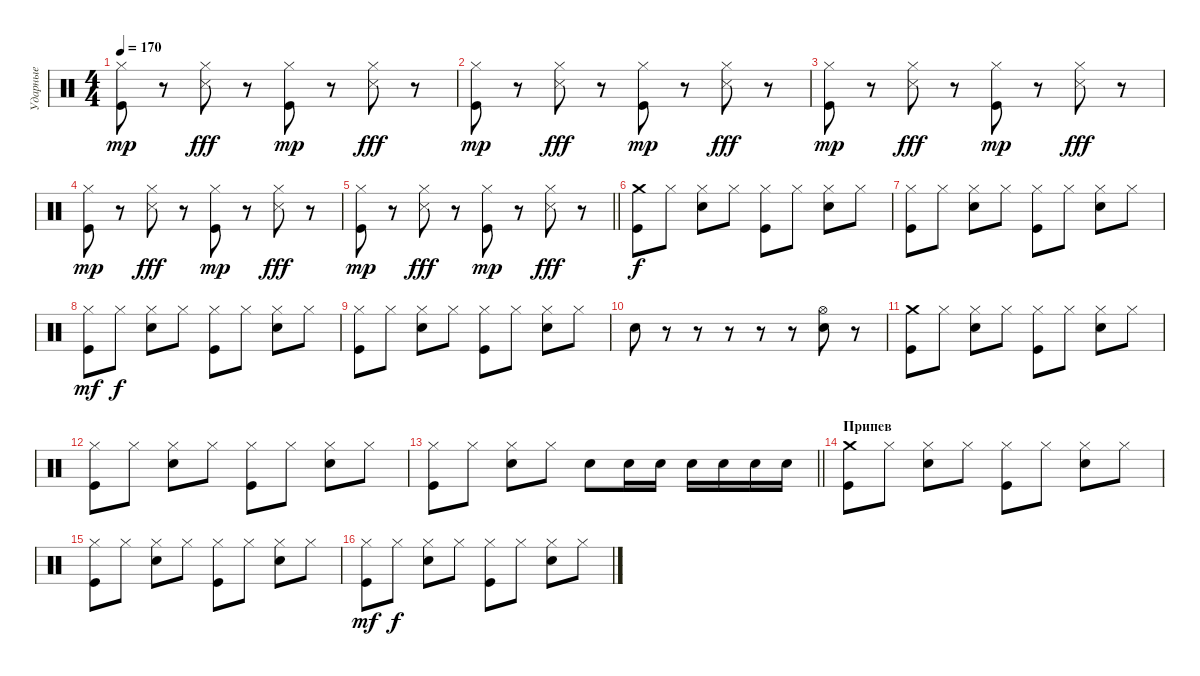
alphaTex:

\track ("Ударные" "Ударные") {instrument percussion}
\staff {score}
\articulation defaults
\ts (4 4)
\tempo 170
\clef neutral
\ks c
("Hi-Hat (closed)" "Kick (hit)").8{dy mp} r.8 ("Hi-Hat (closed)" "Metronome (hit)").8{dy fff} r.8 ("Hi-Hat (closed)" "Kick (hit)").8{dy mp} r.8 ("Hi-Hat (closed)" "Metronome (hit)").8{dy fff} r.8 |
("Hi-Hat (closed)" "Kick (hit)").8{dy mp} r.8 ("Hi-Hat (closed)" "Metronome (hit)").8{dy fff} r.8 ("Hi-Hat (closed)" "Kick (hit)").8{dy mp} r.8 ("Hi-Hat (closed)" "Metronome (hit)").8{dy fff} r.8 |
("Hi-Hat (closed)" "Kick (hit)").8{dy mp} r.8 ("Hi-Hat (closed)" "Metronome (hit)").8{dy fff} r.8 ("Hi-Hat (closed)" "Kick (hit)").8{dy mp} r.8 ("Hi-Hat (closed)" "Metronome (hit)").8{dy fff} r.8 |
("Hi-Hat (closed)" "Kick (hit)").8{dy mp} r.8 ("Hi-Hat (closed)" "Metronome (hit)").8{dy fff} r.8 ("Hi-Hat (closed)" "Kick (hit)").8{dy mp} r.8 ("Hi-Hat (closed)" "Metronome (hit)").8{dy fff} r.8 |
\barLineRight lightlight
("Hi-Hat (closed)" "Kick (hit)").8{dy mp} r.8 ("Hi-Hat (closed)" "Metronome (hit)").8{dy fff} r.8 ("Hi-Hat (closed)" "Kick (hit)").8{dy mp} r.8 ("Hi-Hat (closed)" "Metronome (hit)").8{dy fff} r.8 |
\section ("" " ")
("Crash medium (hit)" "Kick (hit)").8{dy f} "Hi-Hat (closed)".8 ("Hi-Hat (closed)" "Electric Snare (hit)").8 "Hi-Hat (closed)".8 ("Hi-Hat (closed)" "Kick (hit)").8 "Hi-Hat (closed)".8 ("Hi-Hat (closed)" "Electric Snare (hit)").8 "Hi-Hat (closed)".8 |
("Hi-Hat (closed)" "Kick (hit)").8 "Hi-Hat (closed)".8 ("Hi-Hat (closed)" "Electric Snare (hit)").8 "Hi-Hat (closed)".8 ("Hi-Hat (closed)" "Kick (hit)").8 "Hi-Hat (closed)".8 ("Hi-Hat (closed)" "Electric Snare (hit)").8 "Hi-Hat (closed)".8 |
("Hi-Hat (closed)" "Kick (hit)").8{dy mf} "Hi-Hat (closed)".8{dy f} ("Hi-Hat (closed)" "Electric Snare (hit)").8 "Hi-Hat (closed)".8 ("Hi-Hat (closed)" "Kick (hit)").8 "Hi-Hat (closed)".8 ("Hi-Hat (closed)" "Electric Snare (hit)").8 "Hi-Hat (closed)".8 |
("Hi-Hat (closed)" "Kick (hit)").8 "Hi-Hat (closed)".8 ("Hi-Hat (closed)" "Electric Snare (hit)").8 "Hi-Hat (closed)".8 ("Hi-Hat (closed)" "Kick (hit)").8 "Hi-Hat (closed)".8 ("Hi-Hat (closed)" "Electric Snare (hit)").8 "Hi-Hat (closed)".8 |
"Electric Snare (hit)".8 r.8 r.8 r.8 r.8 r.8 ("Hi-Hat (open)" "Electric Snare (hit)").8 r.8 |
("Crash medium (hit)" "Kick (hit)").8 "Hi-Hat (closed)".8 ("Hi-Hat (closed)" "Electric Snare (hit)").8 "Hi-Hat (closed)".8 ("Hi-Hat (closed)" "Kick (hit)").8 "Hi-Hat (closed)".8 ("Hi-Hat (closed)" "Electric Snare (hit)").8 "Hi-Hat (closed)".8 |
("Hi-Hat (closed)" "Kick (hit)").8 "Hi-Hat (closed)".8 ("Hi-Hat (closed)" "Electric Snare (hit)").8 "Hi-Hat (closed)".8 ("Hi-Hat (closed)" "Kick (hit)").8 "Hi-Hat (closed)".8 ("Hi-Hat (closed)" "Electric Snare (hit)").8 "Hi-Hat (closed)".8 |
\barLineRight lightlight
("Hi-Hat (closed)" "Kick (hit)").8 "Hi-Hat (closed)".8 ("Hi-Hat (closed)" "Electric Snare (hit)").8 "Hi-Hat (closed)".8 "Electric Snare (hit)".8 "Electric Snare (hit)".16 "Electric Snare (hit)".16 "Electric Snare (hit)".16 "Electric Snare (hit)".16 "Electric Snare (hit)".16 "Electric Snare (hit)".16 |
\section ("" "Припев")
("Crash medium (hit)" "Kick (hit)").8 "Hi-Hat (closed)".8 ("Hi-Hat (closed)" "Electric Snare (hit)").8 "Hi-Hat (closed)".8 ("Hi-Hat (closed)" "Kick (hit)").8 "Hi-Hat (closed)".8 ("Hi-Hat (closed)" "Electric Snare (hit)").8 "Hi-Hat (closed)".8 |
("Hi-Hat (closed)" "Kick (hit)").8 "Hi-Hat (closed)".8 ("Hi-Hat (closed)" "Electric Snare (hit)").8 "Hi-Hat (closed)".8 ("Hi-Hat (closed)" "Kick (hit)").8 "Hi-Hat (closed)".8 ("Hi-Hat (closed)" "Electric Snare (hit)").8 "Hi-Hat (closed)".8 |
("Hi-Hat (closed)" "Kick (hit)").8{dy mf} "Hi-Hat (closed)".8{dy f} ("Hi-Hat (closed)" "Electric Snare (hit)").8 "Hi-Hat (closed)".8 ("Hi-Hat (closed)" "Kick (hit)").8 "Hi-Hat (closed)".8 ("Hi-Hat (closed)" "Electric Snare (hit)").8 "Hi-Hat (closed)".8
